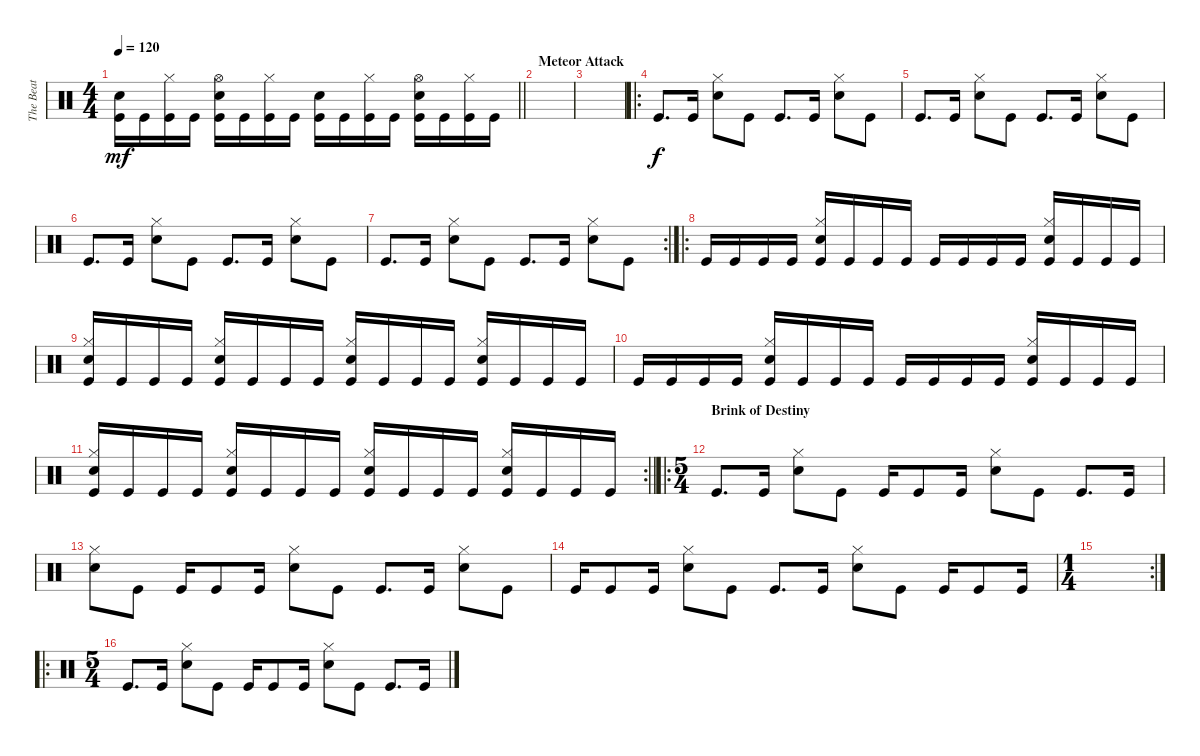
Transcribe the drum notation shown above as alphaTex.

\track ("The Beat" "The Beat") {instrument percussion}
\staff {score}
\articulation defaults
\ts (4 4)
\tempo 120
\clef neutral
\barLineRight lightlight
\ks c
("Kick (hit)" "Electric Snare (hit)").16{dy mf} "Kick (hit)".16 ("Kick (hit)" "Hi-Hat (closed)").16 "Kick (hit)".16 ("Kick (hit)" "Hi-Hat (open)" "Electric Snare (hit)").16 "Kick (hit)".16 ("Kick (hit)" "Hi-Hat (closed)").16 "Kick (hit)".16 ("Kick (hit)" "Electric Snare (hit)").16 "Kick (hit)".16 ("Kick (hit)" "Hi-Hat (closed)").16 "Kick (hit)".16 ("Kick (hit)" "Hi-Hat (open)" "Electric Snare (hit)").16 "Kick (hit)".16 ("Kick (hit)" "Hi-Hat (closed)").16 "Kick (hit)".16 |
\section ("" "Meteor Attack")
|
|
\ro "Kick (hit)".8{d dy f} "Kick (hit)".16
("Hi-Hat (closed)" "Snare (hit) 2").8 "Kick (hit)".8 "Kick (hit)".8{d} "Kick (hit)".16 ("Hi-Hat (closed)" "Snare (hit) 2").8 "Kick (hit)".8 |
"Kick (hit)".8{d} "Kick (hit)".16 ("Hi-Hat (closed)" "Snare (hit) 2").8 "Kick (hit)".8 "Kick (hit)".8{d} "Kick (hit)".16 ("Hi-Hat (closed)" "Snare (hit) 2").8 "Kick (hit)".8 |
"Kick (hit)".8{d} "Kick (hit)".16 ("Hi-Hat (closed)" "Snare (hit) 2").8 "Kick (hit)".8 "Kick (hit)".8{d} "Kick (hit)".16 ("Hi-Hat (closed)" "Snare (hit) 2").8 "Kick (hit)".8 |
\rc 2 "Kick (hit)".8{d} "Kick (hit)".16
("Hi-Hat (closed)" "Snare (hit) 2").8 "Kick (hit)".8 "Kick (hit)".8{d} "Kick (hit)".16 ("Hi-Hat (closed)" "Snare (hit) 2").8 "Kick (hit)".8 |
\ro "Kick (hit)".16 "Kick (hit)".16 "Kick (hit)".16 "Kick (hit)".16
("Kick (hit)" "Hi-Hat (closed)" "Snare (hit) 2").16 "Kick (hit)".16 "Kick (hit)".16 "Kick (hit)".16 "Kick (hit)".16 "Kick (hit)".16 "Kick (hit)".16 "Kick (hit)".16 ("Kick (hit)" "Hi-Hat (closed)" "Snare (hit) 2").16 "Kick (hit)".16 "Kick (hit)".16 "Kick (hit)".16 |
("Kick (hit)" "Hi-Hat (closed)" "Snare (hit) 2").16 "Kick (hit)".16 "Kick (hit)".16 "Kick (hit)".16 ("Kick (hit)" "Hi-Hat (closed)" "Snare (hit) 2").16 "Kick (hit)".16 "Kick (hit)".16 "Kick (hit)".16 ("Kick (hit)" "Hi-Hat (closed)" "Snare (hit) 2").16 "Kick (hit)".16 "Kick (hit)".16 "Kick (hit)".16 ("Kick (hit)" "Hi-Hat (closed)" "Snare (hit) 2").16 "Kick (hit)".16 "Kick (hit)".16 "Kick (hit)".16 |
"Kick (hit)".16 "Kick (hit)".16 "Kick (hit)".16 "Kick (hit)".16 ("Kick (hit)" "Hi-Hat (closed)" "Snare (hit) 2").16 "Kick (hit)".16 "Kick (hit)".16 "Kick (hit)".16 "Kick (hit)".16 "Kick (hit)".16 "Kick (hit)".16 "Kick (hit)".16 ("Kick (hit)" "Hi-Hat (closed)" "Snare (hit) 2").16 "Kick (hit)".16 "Kick (hit)".16 "Kick (hit)".16 |
\rc 2
\barLineRight lightlight
("Kick (hit)" "Hi-Hat (closed)" "Snare (hit) 2").16 "Kick (hit)".16 "Kick (hit)".16 "Kick (hit)".16 ("Kick (hit)" "Hi-Hat (closed)" "Snare (hit) 2").16 "Kick (hit)".16 "Kick (hit)".16 "Kick (hit)".16 ("Kick (hit)" "Hi-Hat (closed)" "Snare (hit) 2").16 "Kick (hit)".16 "Kick (hit)".16 "Kick (hit)".16 ("Kick (hit)" "Hi-Hat (closed)" "Snare (hit) 2").16 "Kick (hit)".16 "Kick (hit)".16 "Kick (hit)".16 |
\ro
\ts (5 4)
\section ("" "Brink of Destiny")
"Kick (hit)".8{d} "Kick (hit)".16 ("Hi-Hat (closed)" "Snare (hit) 2").8 "Kick (hit)".8 "Kick (hit)".16 "Kick (hit)".8 "Kick (hit)".16 ("Hi-Hat (closed)" "Snare (hit) 2").8 "Kick (hit)".8 "Kick (hit)".8{d} "Kick (hit)".16 |
("Hi-Hat (closed)" "Snare (hit) 2").8 "Kick (hit)".8 "Kick (hit)".16 "Kick (hit)".8 "Kick (hit)".16 ("Hi-Hat (closed)" "Snare (hit) 2").8 "Kick (hit)".8 "Kick (hit)".8{d} "Kick (hit)".16 ("Hi-Hat (closed)" "Snare (hit) 2").8 "Kick (hit)".8 |
"Kick (hit)".16 "Kick (hit)".8 "Kick (hit)".16 ("Hi-Hat (closed)" "Snare (hit) 2").8 "Kick (hit)".8 "Kick (hit)".8{d} "Kick (hit)".16 ("Hi-Hat (closed)" "Snare (hit) 2").8 "Kick (hit)".8 "Kick (hit)".16 "Kick (hit)".8 "Kick (hit)".16 |
\rc 2
\ts (1 4)
|
\ro
\ts (5 4)
"Kick (hit)".8{d} "Kick (hit)".16 ("Hi-Hat (closed)" "Snare (hit) 2").8 "Kick (hit)".8 "Kick (hit)".16 "Kick (hit)".8 "Kick (hit)".16 ("Hi-Hat (closed)" "Snare (hit) 2").8 "Kick (hit)".8 "Kick (hit)".8{d} "Kick (hit)".16
